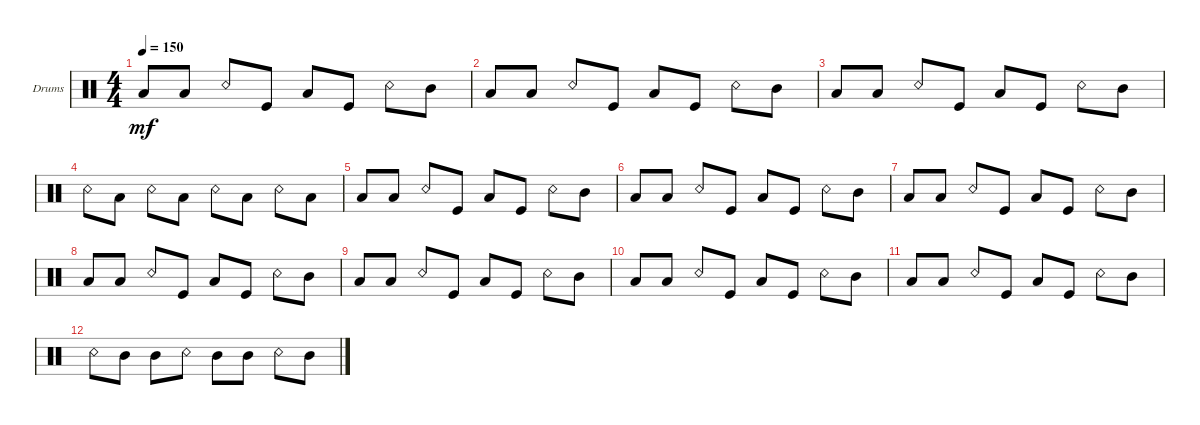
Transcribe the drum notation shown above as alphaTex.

\defaultSystemsLayout 4
\bracketExtendMode groupsimilarinstruments
\firstSystemTrackNameOrientation horizontal
\otherSystemsTrackNameOrientation horizontal
\track ("Drumkit" "Drums") {instrument percussion}
\staff {score}
\articulation defaults
\ts (4 4)
\tempo 150
\clef neutral
\ks c "Low Tom (hit)".8{dy mf} "Low Tom (hit)".8 "Snare (rim shot)".8 "Kick (hit)".8 "Low Tom (hit)".8 "Kick (hit)".8 "Snare (rim shot)".8 "Mid Tom (hit)".8
|
"Low Tom (hit)".8 "Low Tom (hit)".8 "Snare (rim shot)".8 "Kick (hit)".8 "Low Tom (hit)".8 "Kick (hit)".8 "Snare (rim shot)".8 "Mid Tom (hit)".8 |
"Low Tom (hit)".8 "Low Tom (hit)".8 "Snare (rim shot)".8 "Kick (hit)".8 "Low Tom (hit)".8 "Kick (hit)".8 "Snare (rim shot)".8 "Mid Tom (hit)".8 |
"Snare (rim shot)".8 "Low Tom (hit)".8 "Snare (rim shot)".8 "Low Tom (hit)".8 "Snare (rim shot)".8 "Low Tom (hit)".8 "Snare (rim shot)".8 "Low Tom (hit)".8 |
"Low Tom (hit)".8 "Low Tom (hit)".8 "Snare (rim shot)".8 "Kick (hit)".8 "Low Tom (hit)".8 "Kick (hit)".8 "Snare (rim shot)".8 "Mid Tom (hit)".8 |
"Low Tom (hit)".8 "Low Tom (hit)".8 "Snare (rim shot)".8 "Kick (hit)".8 "Low Tom (hit)".8 "Kick (hit)".8 "Snare (rim shot)".8 "Mid Tom (hit)".8 |
"Low Tom (hit)".8 "Low Tom (hit)".8 "Snare (rim shot)".8 "Kick (hit)".8 "Low Tom (hit)".8 "Kick (hit)".8 "Snare (rim shot)".8 "Mid Tom (hit)".8 |
"Low Tom (hit)".8 "Low Tom (hit)".8 "Snare (rim shot)".8 "Kick (hit)".8 "Low Tom (hit)".8 "Kick (hit)".8 "Snare (rim shot)".8 "Mid Tom (hit)".8 |
"Low Tom (hit)".8 "Low Tom (hit)".8 "Snare (rim shot)".8 "Kick (hit)".8 "Low Tom (hit)".8 "Kick (hit)".8 "Snare (rim shot)".8 "Mid Tom (hit)".8 |
"Low Tom (hit)".8 "Low Tom (hit)".8 "Snare (rim shot)".8 "Kick (hit)".8 "Low Tom (hit)".8 "Kick (hit)".8 "Snare (rim shot)".8 "Mid Tom (hit)".8 |
"Low Tom (hit)".8 "Low Tom (hit)".8 "Snare (rim shot)".8 "Kick (hit)".8 "Low Tom (hit)".8 "Kick (hit)".8 "Snare (rim shot)".8 "Mid Tom (hit)".8 |
"Snare (rim shot)".8 "Mid Tom (hit)".8 "Mid Tom (hit)".8 "Snare (rim shot)".8 "Mid Tom (hit)".8 "Mid Tom (hit)".8 "Snare (rim shot)".8 "Mid Tom (hit)".8
